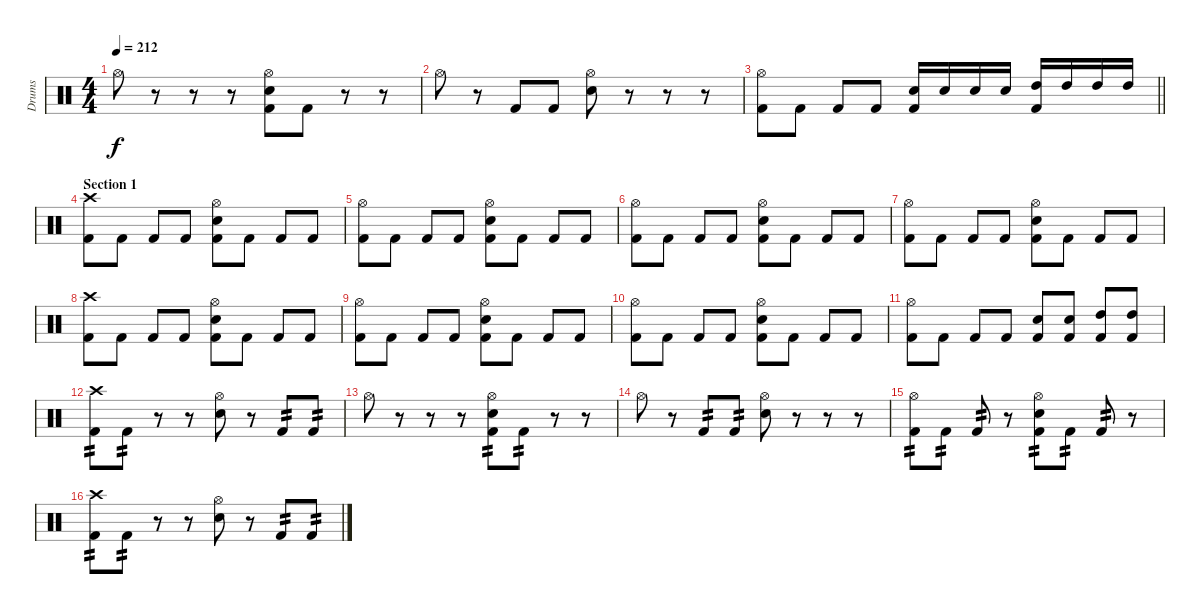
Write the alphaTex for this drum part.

\track ("Drums" "Drums") {instrument percussion}
\staff {score}
\articulation defaults
\ts (4 4)
\tempo 212
\clef neutral
\ks c "Hi-Hat (open)".8{dy f}
r.8 r.8 r.8 ("Hi-Hat (open)" "Snare (hit) 2" "Kick (hit) 2").8 "Kick (hit) 2".8 r.8 r.8 |
"Hi-Hat (open)".8 r.8 "Kick (hit) 2".8 "Kick (hit) 2".8 ("Hi-Hat (open)" "Snare (hit) 2").8 r.8 r.8 r.8 |
\barLineRight lightlight
("Hi-Hat (open)" "Kick (hit) 2").8 "Kick (hit) 2".8 "Kick (hit) 2".8 "Kick (hit) 2".8 ("Snare (hit) 2" "Kick (hit) 2").16 "Snare (hit) 2".16 "Snare (hit) 2".16 "Snare (hit) 2".16 ("High Tom (hit)" "Kick (hit) 2").16 "High Tom (hit)".16 "High Tom (hit)".16 "High Tom (hit)".16 |
\section ("" "Section 1")
("Crash high (hit)" "Kick (hit) 2").8 "Kick (hit) 2".8 "Kick (hit) 2".8 "Kick (hit) 2".8 ("Hi-Hat (open)" "Snare (hit) 2" "Kick (hit) 2").8 "Kick (hit) 2".8 "Kick (hit) 2".8 "Kick (hit) 2".8 |
("Hi-Hat (open)" "Kick (hit) 2").8 "Kick (hit) 2".8 "Kick (hit) 2".8 "Kick (hit) 2".8 ("Hi-Hat (open)" "Snare (hit) 2" "Kick (hit) 2").8 "Kick (hit) 2".8 "Kick (hit) 2".8 "Kick (hit) 2".8 |
("Hi-Hat (open)" "Kick (hit) 2").8 "Kick (hit) 2".8 "Kick (hit) 2".8 "Kick (hit) 2".8 ("Hi-Hat (open)" "Snare (hit) 2" "Kick (hit) 2").8 "Kick (hit) 2".8 "Kick (hit) 2".8 "Kick (hit) 2".8 |
("Hi-Hat (open)" "Kick (hit) 2").8 "Kick (hit) 2".8 "Kick (hit) 2".8 "Kick (hit) 2".8 ("Hi-Hat (open)" "Snare (hit) 2" "Kick (hit) 2").8 "Kick (hit) 2".8 "Kick (hit) 2".8 "Kick (hit) 2".8 |
("Crash high (hit)" "Kick (hit) 2").8 "Kick (hit) 2".8 "Kick (hit) 2".8 "Kick (hit) 2".8 ("Hi-Hat (open)" "Snare (hit) 2" "Kick (hit) 2").8 "Kick (hit) 2".8 "Kick (hit) 2".8 "Kick (hit) 2".8 |
("Hi-Hat (open)" "Kick (hit) 2").8 "Kick (hit) 2".8 "Kick (hit) 2".8 "Kick (hit) 2".8 ("Hi-Hat (open)" "Snare (hit) 2" "Kick (hit) 2").8 "Kick (hit) 2".8 "Kick (hit) 2".8 "Kick (hit) 2".8 |
("Hi-Hat (open)" "Kick (hit) 2").8 "Kick (hit) 2".8 "Kick (hit) 2".8 "Kick (hit) 2".8 ("Hi-Hat (open)" "Snare (hit) 2" "Kick (hit) 2").8 "Kick (hit) 2".8 "Kick (hit) 2".8 "Kick (hit) 2".8 |
("Hi-Hat (open)" "Kick (hit) 2").8 "Kick (hit) 2".8 "Kick (hit) 2".8 "Kick (hit) 2".8 ("Snare (hit) 2" "Kick (hit) 2").8 ("Snare (hit) 2" "Kick (hit) 2").8 ("High Tom (hit)" "Kick (hit) 2").8 ("High Tom (hit)" "Kick (hit) 2").8 |
("Crash high (hit)" "Kick (hit) 2").8{tp 2} "Kick (hit) 2".8{tp 2} r.8 r.8 ("Hi-Hat (open)" "Snare (hit) 2").8 r.8 "Kick (hit) 2".8{tp 2} "Kick (hit) 2".8{tp 2} |
"Hi-Hat (open)".8 r.8 r.8 r.8 ("Hi-Hat (open)" "Snare (hit) 2" "Kick (hit) 2").8{tp 2} "Kick (hit) 2".8{tp 2} r.8 r.8 |
"Hi-Hat (open)".8 r.8 "Kick (hit) 2".8{tp 2} "Kick (hit) 2".8{tp 2} ("Hi-Hat (open)" "Snare (hit) 2").8 r.8 r.8 r.8 |
("Hi-Hat (open)" "Kick (hit) 2").8{tp 2} "Kick (hit) 2".8{tp 2} "Kick (hit) 2".8{tp 2} r.8 ("Hi-Hat (open)" "Snare (hit) 2" "Kick (hit) 2").8{tp 2} "Kick (hit) 2".8{tp 2} "Kick (hit) 2".8{tp 2} r.8 |
("Crash high (hit)" "Kick (hit) 2").8{tp 2} "Kick (hit) 2".8{tp 2} r.8 r.8 ("Hi-Hat (open)" "Snare (hit) 2").8 r.8 "Kick (hit) 2".8{tp 2} "Kick (hit) 2".8{tp 2}
